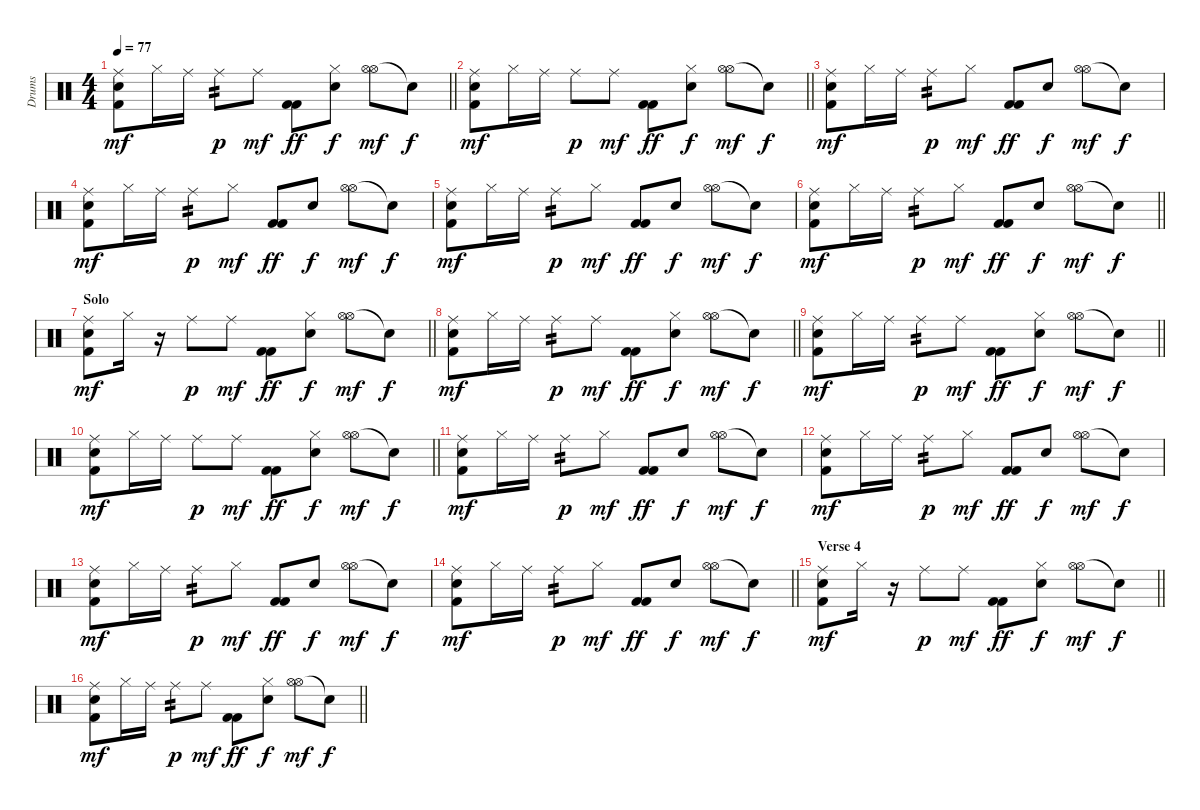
\track ("Drums" "Drums") {instrument percussion}
\staff {score}
\articulation defaults
\ts (4 4)
\tempo 77
\clef neutral
\barLineRight lightlight
\ks c
("Ride (middle)" "Electric Snare (hit)" "Kick (hit) 2").8{dy mf} "Hi-Hat (closed)".16 "Ride (middle)".16 "Ride (middle)".8{tp 2 dy p} "Ride (middle)".8{dy mf} ("Kick (hit) 2" "Kick (hit) 2").8{dy ff} ("Hi-Hat (closed)" "Snare (hit) 2").8{dy f} ("Hi-Hat (open)" "Hi-Hat (open)").8{dy mf} "Snare (hit)"{t}.8{dy f} |
\barLineRight lightlight
("Ride (middle)" "Electric Snare (hit)" "Kick (hit) 2").8{dy mf} "Hi-Hat (closed)".16 "Ride (middle)".16 "Ride (middle)".8{dy p} "Ride (middle)".8{dy mf} ("Kick (hit) 2" "Kick (hit) 2").8{dy ff} ("Hi-Hat (closed)" "Snare (hit) 2").8{dy f} ("Hi-Hat (open)" "Hi-Hat (open)").8{dy mf} "Snare (hit)"{t}.8{dy f} |
("Ride (middle)" "Electric Snare (hit)" "Kick (hit) 2").8{dy mf} "Hi-Hat (closed)".16 "Ride (middle)".16 "Ride (middle)".8{tp 2 dy p} "Hi-Hat (closed)".8{dy mf} ("Kick (hit) 2" "Kick (hit) 2").8{dy ff} "Snare (hit) 2".8{dy f} ("Hi-Hat (open)" "Hi-Hat (open)").8{dy mf} "Snare (hit)"{t}.8{dy f} |
("Ride (middle)" "Electric Snare (hit)" "Kick (hit) 2").8{dy mf} "Hi-Hat (closed)".16 "Ride (middle)".16 "Ride (middle)".8{tp 2 dy p} "Hi-Hat (closed)".8{dy mf} ("Kick (hit) 2" "Kick (hit) 2").8{dy ff} "Snare (hit) 2".8{dy f} ("Hi-Hat (open)" "Hi-Hat (open)").8{dy mf} "Snare (hit)"{t}.8{dy f} |
("Ride (middle)" "Electric Snare (hit)" "Kick (hit) 2").8{dy mf} "Hi-Hat (closed)".16 "Ride (middle)".16 "Ride (middle)".8{tp 2 dy p} "Hi-Hat (closed)".8{dy mf} ("Kick (hit) 2" "Kick (hit) 2").8{dy ff} "Snare (hit) 2".8{dy f} ("Hi-Hat (open)" "Hi-Hat (open)").8{dy mf} "Snare (hit)"{t}.8{dy f} |
\barLineRight lightlight
("Ride (middle)" "Electric Snare (hit)" "Kick (hit) 2").8{dy mf} "Hi-Hat (closed)".16 "Ride (middle)".16 "Ride (middle)".8{tp 2 dy p} "Hi-Hat (closed)".8{dy mf} ("Kick (hit) 2" "Kick (hit) 2").8{dy ff} "Snare (hit) 2".8{dy f} ("Hi-Hat (open)" "Hi-Hat (open)").8{dy mf} "Snare (hit)"{t}.8{dy f} |
\section ("" "Solo")
\barLineRight lightlight
("Ride (middle)" "Electric Snare (hit)" "Kick (hit) 2").8{dy mf} "Hi-Hat (closed)".16 r.16 "Ride (middle)".8{dy p} "Ride (middle)".8{dy mf} ("Kick (hit) 2" "Kick (hit) 2").8{dy ff} ("Hi-Hat (closed)" "Snare (hit) 2").8{dy f} ("Hi-Hat (open)" "Hi-Hat (open)").8{dy mf} "Snare (hit)"{t}.8{dy f} |
\barLineRight lightlight
("Ride (middle)" "Electric Snare (hit)" "Kick (hit) 2").8{dy mf} "Hi-Hat (closed)".16 "Ride (middle)".16 "Ride (middle)".8{tp 2 dy p} "Ride (middle)".8{dy mf} ("Kick (hit) 2" "Kick (hit) 2").8{dy ff} ("Hi-Hat (closed)" "Snare (hit) 2").8{dy f} ("Hi-Hat (open)" "Hi-Hat (open)").8{dy mf} "Snare (hit)"{t}.8{dy f} |
\barLineRight lightlight
("Ride (middle)" "Electric Snare (hit)" "Kick (hit) 2").8{dy mf} "Hi-Hat (closed)".16 "Ride (middle)".16 "Ride (middle)".8{tp 2 dy p} "Ride (middle)".8{dy mf} ("Kick (hit) 2" "Kick (hit) 2").8{dy ff} ("Hi-Hat (closed)" "Snare (hit) 2").8{dy f} ("Hi-Hat (open)" "Hi-Hat (open)").8{dy mf} "Snare (hit)"{t}.8{dy f} |
\barLineRight lightlight
("Ride (middle)" "Electric Snare (hit)" "Kick (hit) 2").8{dy mf} "Hi-Hat (closed)".16 "Ride (middle)".16 "Ride (middle)".8{dy p} "Ride (middle)".8{dy mf} ("Kick (hit) 2" "Kick (hit) 2").8{dy ff} ("Hi-Hat (closed)" "Snare (hit) 2").8{dy f} ("Hi-Hat (open)" "Hi-Hat (open)").8{dy mf} "Snare (hit)"{t}.8{dy f} |
("Ride (middle)" "Electric Snare (hit)" "Kick (hit) 2").8{dy mf} "Hi-Hat (closed)".16 "Ride (middle)".16 "Ride (middle)".8{tp 2 dy p} "Hi-Hat (closed)".8{dy mf} ("Kick (hit) 2" "Kick (hit) 2").8{dy ff} "Snare (hit) 2".8{dy f} ("Hi-Hat (open)" "Hi-Hat (open)").8{dy mf} "Snare (hit)"{t}.8{dy f} |
("Ride (middle)" "Electric Snare (hit)" "Kick (hit) 2").8{dy mf} "Hi-Hat (closed)".16 "Ride (middle)".16 "Ride (middle)".8{tp 2 dy p} "Hi-Hat (closed)".8{dy mf} ("Kick (hit) 2" "Kick (hit) 2").8{dy ff} "Snare (hit) 2".8{dy f} ("Hi-Hat (open)" "Hi-Hat (open)").8{dy mf} "Snare (hit)"{t}.8{dy f} |
("Ride (middle)" "Electric Snare (hit)" "Kick (hit) 2").8{dy mf} "Hi-Hat (closed)".16 "Ride (middle)".16 "Ride (middle)".8{tp 2 dy p} "Hi-Hat (closed)".8{dy mf} ("Kick (hit) 2" "Kick (hit) 2").8{dy ff} "Snare (hit) 2".8{dy f} ("Hi-Hat (open)" "Hi-Hat (open)").8{dy mf} "Snare (hit)"{t}.8{dy f} |
\barLineRight lightlight
("Ride (middle)" "Electric Snare (hit)" "Kick (hit) 2").8{dy mf} "Hi-Hat (closed)".16 "Ride (middle)".16 "Ride (middle)".8{tp 2 dy p} "Hi-Hat (closed)".8{dy mf} ("Kick (hit) 2" "Kick (hit) 2").8{dy ff} "Snare (hit) 2".8{dy f} ("Hi-Hat (open)" "Hi-Hat (open)").8{dy mf} "Snare (hit)"{t}.8{dy f} |
\section ("" "Verse 4 ")
\barLineRight lightlight
("Ride (middle)" "Electric Snare (hit)" "Kick (hit) 2").8{dy mf} "Hi-Hat (closed)".16 r.16 "Ride (middle)".8{dy p} "Ride (middle)".8{dy mf} ("Kick (hit) 2" "Kick (hit) 2").8{dy ff} ("Hi-Hat (closed)" "Snare (hit) 2").8{dy f} ("Hi-Hat (open)" "Hi-Hat (open)").8{dy mf} "Snare (hit)"{t}.8{dy f} |
\barLineRight lightlight
("Ride (middle)" "Electric Snare (hit)" "Kick (hit) 2").8{dy mf} "Hi-Hat (closed)".16 "Ride (middle)".16 "Ride (middle)".8{tp 2 dy p} "Ride (middle)".8{dy mf} ("Kick (hit) 2" "Kick (hit) 2").8{dy ff} ("Hi-Hat (closed)" "Snare (hit) 2").8{dy f} ("Hi-Hat (open)" "Hi-Hat (open)").8{dy mf} "Snare (hit)"{t}.8{dy f}
